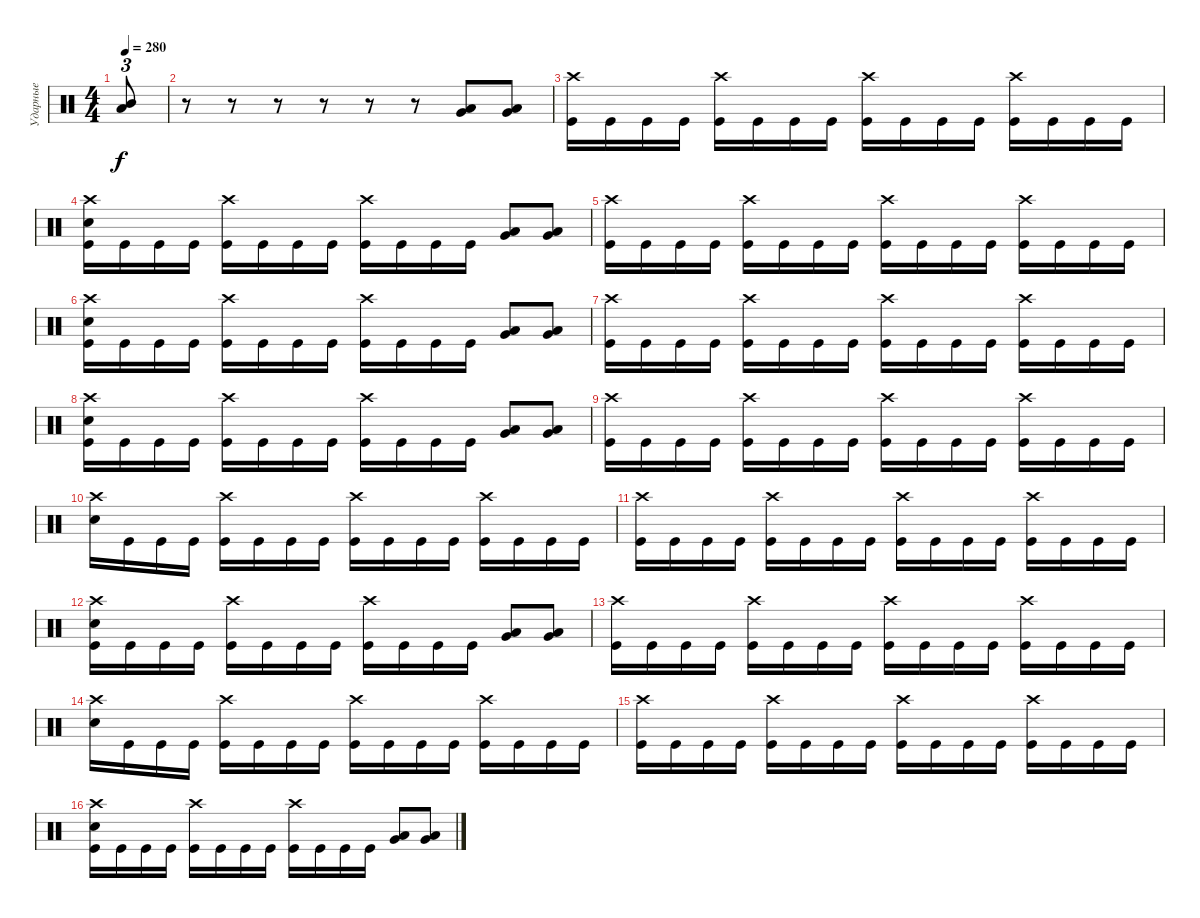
\track ("Ударные" "Ударные") {instrument percussion}
\staff {score}
\articulation defaults
\ts (4 4)
\tempo 280
\clef neutral
\ks c
("Mid Tom (hit)" "Low Tom (hit)").8{tu (3 2) dy f} |
r.8 r.8 r.8 r.8 r.8 r.8 ("Very Low Tom (hit)" "Low Tom (hit)").8 ("Very Low Tom (hit)" "Low Tom (hit)").8 |
("Crash high (hit)" "Kick (hit)").16 "Kick (hit)".16 "Kick (hit)".16 "Kick (hit)".16 ("Crash high (hit)" "Kick (hit)").16 "Kick (hit)".16 "Kick (hit)".16 "Kick (hit)".16 ("Crash high (hit)" "Kick (hit)").16 "Kick (hit)".16 "Kick (hit)".16 "Kick (hit)".16 ("Crash high (hit)" "Kick (hit)").16 "Kick (hit)".16 "Kick (hit)".16 "Kick (hit)".16 |
("Crash high (hit)" "Snare (hit) 2" "Kick (hit)").16 "Kick (hit)".16 "Kick (hit)".16 "Kick (hit)".16 ("Crash high (hit)" "Kick (hit)").16 "Kick (hit)".16 "Kick (hit)".16 "Kick (hit)".16 ("Crash high (hit)" "Kick (hit)").16 "Kick (hit)".16 "Kick (hit)".16 "Kick (hit)".16 ("Very Low Tom (hit)" "Low Tom (hit)").8 ("Very Low Tom (hit)" "Low Tom (hit)").8 |
("Crash high (hit)" "Kick (hit)").16 "Kick (hit)".16 "Kick (hit)".16 "Kick (hit)".16 ("Crash high (hit)" "Kick (hit)").16 "Kick (hit)".16 "Kick (hit)".16 "Kick (hit)".16 ("Crash high (hit)" "Kick (hit)").16 "Kick (hit)".16 "Kick (hit)".16 "Kick (hit)".16 ("Crash high (hit)" "Kick (hit)").16 "Kick (hit)".16 "Kick (hit)".16 "Kick (hit)".16 |
("Crash high (hit)" "Snare (hit) 2" "Kick (hit)").16 "Kick (hit)".16 "Kick (hit)".16 "Kick (hit)".16 ("Crash high (hit)" "Kick (hit)").16 "Kick (hit)".16 "Kick (hit)".16 "Kick (hit)".16 ("Crash high (hit)" "Kick (hit)").16 "Kick (hit)".16 "Kick (hit)".16 "Kick (hit)".16 ("Very Low Tom (hit)" "Low Tom (hit)").8 ("Very Low Tom (hit)" "Low Tom (hit)").8 |
("Crash high (hit)" "Kick (hit)").16 "Kick (hit)".16 "Kick (hit)".16 "Kick (hit)".16 ("Crash high (hit)" "Kick (hit)").16 "Kick (hit)".16 "Kick (hit)".16 "Kick (hit)".16 ("Crash high (hit)" "Kick (hit)").16 "Kick (hit)".16 "Kick (hit)".16 "Kick (hit)".16 ("Crash high (hit)" "Kick (hit)").16 "Kick (hit)".16 "Kick (hit)".16 "Kick (hit)".16 |
("Crash high (hit)" "Snare (hit) 2" "Kick (hit)").16 "Kick (hit)".16 "Kick (hit)".16 "Kick (hit)".16 ("Crash high (hit)" "Kick (hit)").16 "Kick (hit)".16 "Kick (hit)".16 "Kick (hit)".16 ("Crash high (hit)" "Kick (hit)").16 "Kick (hit)".16 "Kick (hit)".16 "Kick (hit)".16 ("Very Low Tom (hit)" "Low Tom (hit)").8 ("Very Low Tom (hit)" "Low Tom (hit)").8 |
("Crash high (hit)" "Kick (hit)").16 "Kick (hit)".16 "Kick (hit)".16 "Kick (hit)".16 ("Crash high (hit)" "Kick (hit)").16 "Kick (hit)".16 "Kick (hit)".16 "Kick (hit)".16 ("Crash high (hit)" "Kick (hit)").16 "Kick (hit)".16 "Kick (hit)".16 "Kick (hit)".16 ("Crash high (hit)" "Kick (hit)").16 "Kick (hit)".16 "Kick (hit)".16 "Kick (hit)".16 |
("Crash high (hit)" "Electric Snare (hit)").16 "Kick (hit)".16 "Kick (hit)".16 "Kick (hit)".16 ("Crash high (hit)" "Kick (hit)").16 "Kick (hit)".16 "Kick (hit)".16 "Kick (hit)".16 ("Crash high (hit)" "Kick (hit)").16 "Kick (hit)".16 "Kick (hit)".16 "Kick (hit)".16 ("Crash high (hit)" "Kick (hit)").16 "Kick (hit)".16 "Kick (hit)".16 "Kick (hit)".16 |
("Crash high (hit)" "Kick (hit)").16 "Kick (hit)".16 "Kick (hit)".16 "Kick (hit)".16 ("Crash high (hit)" "Kick (hit)").16 "Kick (hit)".16 "Kick (hit)".16 "Kick (hit)".16 ("Crash high (hit)" "Kick (hit)").16 "Kick (hit)".16 "Kick (hit)".16 "Kick (hit)".16 ("Crash high (hit)" "Kick (hit)").16 "Kick (hit)".16 "Kick (hit)".16 "Kick (hit)".16 |
("Crash high (hit)" "Snare (hit) 2" "Kick (hit)").16 "Kick (hit)".16 "Kick (hit)".16 "Kick (hit)".16 ("Crash high (hit)" "Kick (hit)").16 "Kick (hit)".16 "Kick (hit)".16 "Kick (hit)".16 ("Crash high (hit)" "Kick (hit)").16 "Kick (hit)".16 "Kick (hit)".16 "Kick (hit)".16 ("Very Low Tom (hit)" "Low Tom (hit)").8 ("Very Low Tom (hit)" "Low Tom (hit)").8 |
("Crash high (hit)" "Kick (hit)").16 "Kick (hit)".16 "Kick (hit)".16 "Kick (hit)".16 ("Crash high (hit)" "Kick (hit)").16 "Kick (hit)".16 "Kick (hit)".16 "Kick (hit)".16 ("Crash high (hit)" "Kick (hit)").16 "Kick (hit)".16 "Kick (hit)".16 "Kick (hit)".16 ("Crash high (hit)" "Kick (hit)").16 "Kick (hit)".16 "Kick (hit)".16 "Kick (hit)".16 |
("Crash high (hit)" "Electric Snare (hit)").16 "Kick (hit)".16 "Kick (hit)".16 "Kick (hit)".16 ("Crash high (hit)" "Kick (hit)").16 "Kick (hit)".16 "Kick (hit)".16 "Kick (hit)".16 ("Crash high (hit)" "Kick (hit)").16 "Kick (hit)".16 "Kick (hit)".16 "Kick (hit)".16 ("Crash high (hit)" "Kick (hit)").16 "Kick (hit)".16 "Kick (hit)".16 "Kick (hit)".16 |
("Crash high (hit)" "Kick (hit)").16 "Kick (hit)".16 "Kick (hit)".16 "Kick (hit)".16 ("Crash high (hit)" "Kick (hit)").16 "Kick (hit)".16 "Kick (hit)".16 "Kick (hit)".16 ("Crash high (hit)" "Kick (hit)").16 "Kick (hit)".16 "Kick (hit)".16 "Kick (hit)".16 ("Crash high (hit)" "Kick (hit)").16 "Kick (hit)".16 "Kick (hit)".16 "Kick (hit)".16 |
("Crash high (hit)" "Snare (hit) 2" "Kick (hit)").16 "Kick (hit)".16 "Kick (hit)".16 "Kick (hit)".16 ("Crash high (hit)" "Kick (hit)").16 "Kick (hit)".16 "Kick (hit)".16 "Kick (hit)".16 ("Crash high (hit)" "Kick (hit)").16 "Kick (hit)".16 "Kick (hit)".16 "Kick (hit)".16 ("Very Low Tom (hit)" "Low Tom (hit)").8 ("Very Low Tom (hit)" "Low Tom (hit)").8
